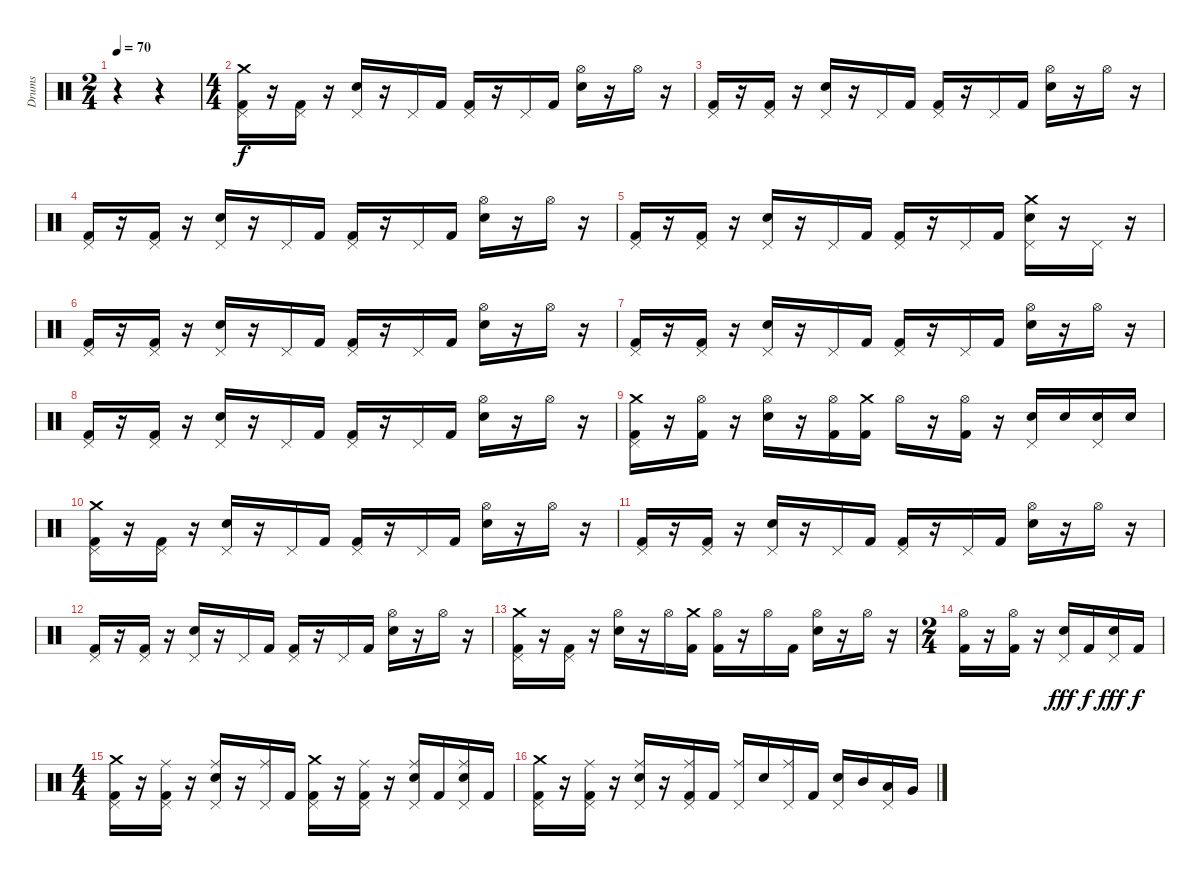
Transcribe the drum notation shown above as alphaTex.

\track ("Drums" "Drums") {instrument percussion}
\staff {score}
\articulation defaults
\ts (2 4)
\tempo 70
\clef neutral
\ks c
r.4{dy f} r.4 |
\ts (4 4)
("Crash medium (hit)" "Pedal Hi-Hat (hit)" "Kick (hit) 2").16 r.16 ("Pedal Hi-Hat (hit)" "Kick (hit) 2").16 r.16 ("Pedal Hi-Hat (hit)" "Snare (hit) 2").16 r.16 "Pedal Hi-Hat (hit)".16 "Kick (hit) 2".16 ("Pedal Hi-Hat (hit)" "Kick (hit) 2").16 r.16 "Pedal Hi-Hat (hit)".16 "Kick (hit) 2".16 ("Hi-Hat (open)" "Snare (hit) 2").16 r.16 "Hi-Hat (open)".16 r.16 |
("Pedal Hi-Hat (hit)" "Kick (hit) 2").16 r.16 ("Pedal Hi-Hat (hit)" "Kick (hit) 2").16 r.16 ("Pedal Hi-Hat (hit)" "Snare (hit) 2").16 r.16 "Pedal Hi-Hat (hit)".16 "Kick (hit) 2".16 ("Pedal Hi-Hat (hit)" "Kick (hit) 2").16 r.16 "Pedal Hi-Hat (hit)".16 "Kick (hit) 2".16 ("Hi-Hat (open)" "Snare (hit) 2").16 r.16 "Hi-Hat (open)".16 r.16 |
("Pedal Hi-Hat (hit)" "Kick (hit) 2").16 r.16 ("Pedal Hi-Hat (hit)" "Kick (hit) 2").16 r.16 ("Pedal Hi-Hat (hit)" "Snare (hit) 2").16 r.16 "Pedal Hi-Hat (hit)".16 "Kick (hit) 2".16 ("Pedal Hi-Hat (hit)" "Kick (hit) 2").16 r.16 "Pedal Hi-Hat (hit)".16 "Kick (hit) 2".16 ("Hi-Hat (open)" "Snare (hit) 2").16 r.16 "Hi-Hat (open)".16 r.16 |
("Pedal Hi-Hat (hit)" "Kick (hit) 2").16 r.16 ("Pedal Hi-Hat (hit)" "Kick (hit) 2").16 r.16 ("Pedal Hi-Hat (hit)" "Snare (hit) 2").16 r.16 "Pedal Hi-Hat (hit)".16 "Kick (hit) 2".16 ("Pedal Hi-Hat (hit)" "Kick (hit) 2").16 r.16 "Pedal Hi-Hat (hit)".16 "Kick (hit) 2".16 ("Crash medium (hit)" "Pedal Hi-Hat (hit)" "Snare (hit) 2").16 r.16 "Pedal Hi-Hat (hit)".16 r.16 |
("Pedal Hi-Hat (hit)" "Kick (hit) 2").16 r.16 ("Pedal Hi-Hat (hit)" "Kick (hit) 2").16 r.16 ("Pedal Hi-Hat (hit)" "Snare (hit) 2").16 r.16 "Pedal Hi-Hat (hit)".16 "Kick (hit) 2".16 ("Pedal Hi-Hat (hit)" "Kick (hit) 2").16 r.16 "Pedal Hi-Hat (hit)".16 "Kick (hit) 2".16 ("Hi-Hat (open)" "Snare (hit) 2").16 r.16 "Hi-Hat (open)".16 r.16 |
("Pedal Hi-Hat (hit)" "Kick (hit) 2").16 r.16 ("Pedal Hi-Hat (hit)" "Kick (hit) 2").16 r.16 ("Pedal Hi-Hat (hit)" "Snare (hit) 2").16 r.16 "Pedal Hi-Hat (hit)".16 "Kick (hit) 2".16 ("Pedal Hi-Hat (hit)" "Kick (hit) 2").16 r.16 "Pedal Hi-Hat (hit)".16 "Kick (hit) 2".16 ("Hi-Hat (open)" "Snare (hit) 2").16 r.16 "Hi-Hat (open)".16 r.16 |
("Pedal Hi-Hat (hit)" "Kick (hit) 2").16 r.16 ("Pedal Hi-Hat (hit)" "Kick (hit) 2").16 r.16 ("Pedal Hi-Hat (hit)" "Snare (hit) 2").16 r.16 "Pedal Hi-Hat (hit)".16 "Kick (hit) 2".16 ("Pedal Hi-Hat (hit)" "Kick (hit) 2").16 r.16 "Pedal Hi-Hat (hit)".16 "Kick (hit) 2".16 ("Hi-Hat (open)" "Snare (hit) 2").16 r.16 "Hi-Hat (open)".16 r.16 |
("Crash medium (hit)" "Pedal Hi-Hat (hit)" "Kick (hit) 2").16 r.16 ("Hi-Hat (open)" "Kick (hit) 2").16 r.16 ("Hi-Hat (open)" "Snare (hit) 2").16 r.16 ("Hi-Hat (open)" "Kick (hit) 2").16 ("Crash medium (hit)" "Kick (hit) 2").16 "Hi-Hat (open)".16 r.16 ("Hi-Hat (open)" "Kick (hit) 2").16 r.16 ("Pedal Hi-Hat (hit)" "Snare (hit) 2").16 "Snare (hit) 2".16 ("Pedal Hi-Hat (hit)" "Snare (hit) 2").16 "Snare (hit) 2".16 |
("Crash medium (hit)" "Pedal Hi-Hat (hit)" "Kick (hit) 2").16 r.16 ("Pedal Hi-Hat (hit)" "Kick (hit) 2").16 r.16 ("Pedal Hi-Hat (hit)" "Snare (hit) 2").16 r.16 "Pedal Hi-Hat (hit)".16 "Kick (hit) 2".16 ("Pedal Hi-Hat (hit)" "Kick (hit) 2").16 r.16 "Pedal Hi-Hat (hit)".16 "Kick (hit) 2".16 ("Hi-Hat (open)" "Snare (hit) 2").16 r.16 "Hi-Hat (open)".16 r.16 |
("Pedal Hi-Hat (hit)" "Kick (hit) 2").16 r.16 ("Pedal Hi-Hat (hit)" "Kick (hit) 2").16 r.16 ("Pedal Hi-Hat (hit)" "Snare (hit) 2").16 r.16 "Pedal Hi-Hat (hit)".16 "Kick (hit) 2".16 ("Pedal Hi-Hat (hit)" "Kick (hit) 2").16 r.16 "Pedal Hi-Hat (hit)".16 "Kick (hit) 2".16 ("Hi-Hat (open)" "Snare (hit) 2").16 r.16 "Hi-Hat (open)".16 r.16 |
("Pedal Hi-Hat (hit)" "Kick (hit) 2").16 r.16 ("Pedal Hi-Hat (hit)" "Kick (hit) 2").16 r.16 ("Pedal Hi-Hat (hit)" "Snare (hit) 2").16 r.16 "Pedal Hi-Hat (hit)".16 "Kick (hit) 2".16 ("Pedal Hi-Hat (hit)" "Kick (hit) 2").16 r.16 "Pedal Hi-Hat (hit)".16 "Kick (hit) 2".16 ("Hi-Hat (open)" "Snare (hit) 2").16 r.16 "Hi-Hat (open)".16 r.16 |
("Crash medium (hit)" "Pedal Hi-Hat (hit)" "Kick (hit) 2").16 r.16 ("Pedal Hi-Hat (hit)" "Kick (hit) 2").16 r.16 ("Hi-Hat (open)" "Snare (hit) 2").16 r.16 "Hi-Hat (open)".16 ("Crash medium (hit)" "Kick (hit) 2").16 ("Hi-Hat (open)" "Kick (hit) 2").16 r.16 "Hi-Hat (open)".16 "Kick (hit) 2".16 ("Hi-Hat (open)" "Snare (hit) 2").16 r.16 "Hi-Hat (open)".16 r.16 |
\ts (2 4)
("Hi-Hat (open)" "Kick (hit) 2").16 r.16 ("Hi-Hat (open)" "Kick (hit) 2").16 r.16 ("Pedal Hi-Hat (hit)" "Snare (hit) 2").16{dy fff} "Kick (hit) 2".16{dy f} ("Pedal Hi-Hat (hit)" "Snare (hit) 2").16{dy fff} "Kick (hit) 2".16{dy f} |
\ts (4 4)
("Crash medium (hit)" "Pedal Hi-Hat (hit)" "Kick (hit) 2").16 r.16 ("Ride (middle)" "Pedal Hi-Hat (hit)" "Kick (hit) 2").16 r.16 ("Ride (middle)" "Pedal Hi-Hat (hit)" "Snare (hit) 2").16 r.16 ("Ride (middle)" "Pedal Hi-Hat (hit)").16 "Kick (hit) 2".16 ("Crash medium (hit)" "Pedal Hi-Hat (hit)" "Kick (hit) 2").16 r.16 ("Ride (middle)" "Pedal Hi-Hat (hit)" "Kick (hit) 2").16 r.16 ("Ride (middle)" "Pedal Hi-Hat (hit)" "Snare (hit) 2").16 "Kick (hit) 2".16 ("Ride (middle)" "Pedal Hi-Hat (hit)" "Snare (hit) 2").16 "Kick (hit) 2".16 |
("Crash medium (hit)" "Pedal Hi-Hat (hit)" "Kick (hit) 2").16 r.16 ("Ride (middle)" "Pedal Hi-Hat (hit)" "Kick (hit) 2").16 r.16 ("Ride (middle)" "Pedal Hi-Hat (hit)" "Snare (hit) 2").16 r.16 ("Ride (middle)" "Pedal Hi-Hat (hit)" "Kick (hit) 2").16 "Kick (hit) 2".16 ("Ride (middle)" "Pedal Hi-Hat (hit)").16 "Snare (hit) 2".16 ("Ride (middle)" "Pedal Hi-Hat (hit)").16 "Kick (hit) 2".16 ("Pedal Hi-Hat (hit)" "Snare (hit) 2").16 "Mid Tom (hit)".16 ("Pedal Hi-Hat (hit)" "Low Tom (hit)").16 "Very Low Tom (hit)".16
